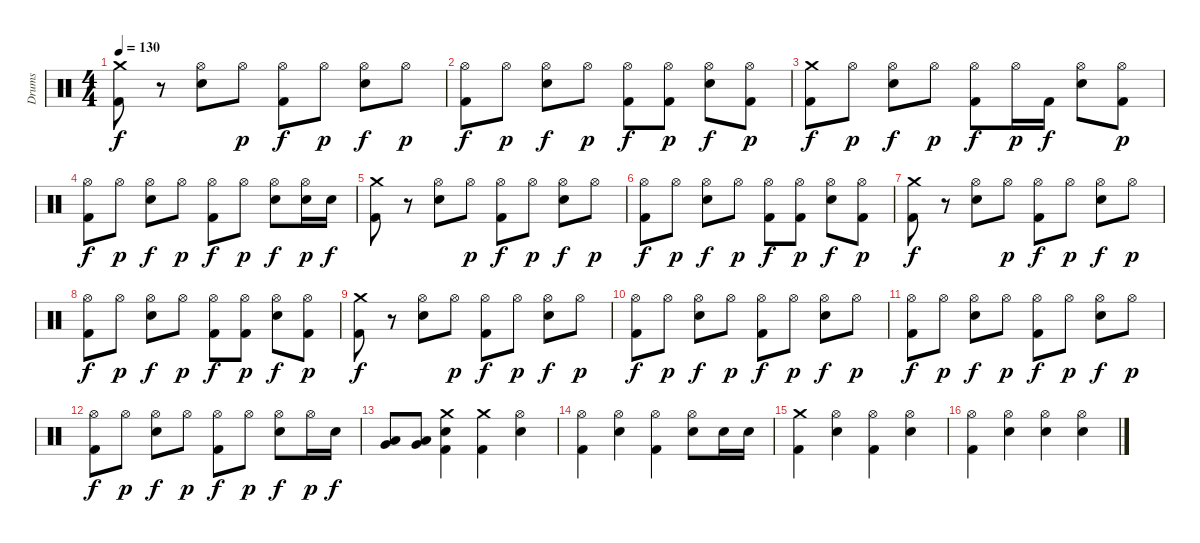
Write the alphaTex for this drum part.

\track ("Drums" "Drums") {instrument percussion}
\staff {score}
\articulation defaults
\ts (4 4)
\tempo 130
\clef neutral
\ks c
("Crash medium (hit)" "Kick (hit) 2").8{dy f} r.8 ("Hi-Hat (open)" "Snare (hit) 2").8 "Hi-Hat (open)".8{dy p} ("Hi-Hat (open)" "Kick (hit) 2").8{dy f} "Hi-Hat (open)".8{dy p} ("Hi-Hat (open)" "Snare (hit) 2").8{dy f} "Hi-Hat (open)".8{dy p} |
("Hi-Hat (open)" "Kick (hit) 2").8{dy f} "Hi-Hat (open)".8{dy p} ("Hi-Hat (open)" "Snare (hit) 2").8{dy f} "Hi-Hat (open)".8{dy p} ("Hi-Hat (open)" "Kick (hit) 2").8{dy f} ("Hi-Hat (open)" "Kick (hit) 2").8{dy p} ("Hi-Hat (open)" "Snare (hit) 2").8{dy f} ("Hi-Hat (open)" "Kick (hit) 2").8{dy p} |
("Crash medium (hit)" "Kick (hit) 2").8{dy f} "Hi-Hat (open)".8{dy p} ("Hi-Hat (open)" "Snare (hit) 2").8{dy f} "Hi-Hat (open)".8{dy p} ("Hi-Hat (open)" "Kick (hit) 2").8{dy f} "Hi-Hat (open)".16{dy p} "Kick (hit) 2".16{dy f} ("Hi-Hat (open)" "Snare (hit) 2").8 ("Hi-Hat (open)" "Kick (hit) 2").8{dy p} |
("Hi-Hat (open)" "Kick (hit) 2").8{dy f} "Hi-Hat (open)".8{dy p} ("Hi-Hat (open)" "Snare (hit) 2").8{dy f} "Hi-Hat (open)".8{dy p} ("Hi-Hat (open)" "Kick (hit) 2").8{dy f} "Hi-Hat (open)".8{dy p} ("Hi-Hat (open)" "Snare (hit) 2").8{dy f} ("Hi-Hat (open)" "Snare (hit) 2").16{dy p} "Snare (hit) 2".16{dy f} |
("Crash medium (hit)" "Kick (hit) 2").8 r.8 ("Hi-Hat (open)" "Snare (hit) 2").8 "Hi-Hat (open)".8{dy p} ("Hi-Hat (open)" "Kick (hit) 2").8{dy f} "Hi-Hat (open)".8{dy p} ("Hi-Hat (open)" "Snare (hit) 2").8{dy f} "Hi-Hat (open)".8{dy p} |
("Hi-Hat (open)" "Kick (hit) 2").8{dy f} "Hi-Hat (open)".8{dy p} ("Hi-Hat (open)" "Snare (hit) 2").8{dy f} "Hi-Hat (open)".8{dy p} ("Hi-Hat (open)" "Kick (hit) 2").8{dy f} ("Hi-Hat (open)" "Kick (hit) 2").8{dy p} ("Hi-Hat (open)" "Snare (hit) 2").8{dy f} ("Hi-Hat (open)" "Kick (hit) 2").8{dy p} |
("Crash medium (hit)" "Kick (hit) 2").8{dy f} r.8 ("Hi-Hat (open)" "Snare (hit) 2").8 "Hi-Hat (open)".8{dy p} ("Hi-Hat (open)" "Kick (hit) 2").8{dy f} "Hi-Hat (open)".8{dy p} ("Hi-Hat (open)" "Snare (hit) 2").8{dy f} "Hi-Hat (open)".8{dy p} |
("Hi-Hat (open)" "Kick (hit) 2").8{dy f} "Hi-Hat (open)".8{dy p} ("Hi-Hat (open)" "Snare (hit) 2").8{dy f} "Hi-Hat (open)".8{dy p} ("Hi-Hat (open)" "Kick (hit) 2").8{dy f} ("Hi-Hat (open)" "Kick (hit) 2").8{dy p} ("Hi-Hat (open)" "Snare (hit) 2").8{dy f} ("Hi-Hat (open)" "Kick (hit) 2").8{dy p} |
("Crash medium (hit)" "Kick (hit) 2").8{dy f} r.8 ("Hi-Hat (open)" "Snare (hit) 2").8 "Hi-Hat (open)".8{dy p} ("Hi-Hat (open)" "Kick (hit) 2").8{dy f} "Hi-Hat (open)".8{dy p} ("Hi-Hat (open)" "Snare (hit) 2").8{dy f} "Hi-Hat (open)".8{dy p} |
("Hi-Hat (open)" "Kick (hit) 2").8{dy f} "Hi-Hat (open)".8{dy p} ("Hi-Hat (open)" "Snare (hit) 2").8{dy f} "Hi-Hat (open)".8{dy p} ("Hi-Hat (open)" "Kick (hit) 2").8{dy f} "Hi-Hat (open)".8{dy p} ("Hi-Hat (open)" "Snare (hit) 2").8{dy f} "Hi-Hat (open)".8{dy p} |
("Hi-Hat (open)" "Kick (hit) 2").8{dy f} "Hi-Hat (open)".8{dy p} ("Hi-Hat (open)" "Snare (hit) 2").8{dy f} "Hi-Hat (open)".8{dy p} ("Hi-Hat (open)" "Kick (hit) 2").8{dy f} "Hi-Hat (open)".8{dy p} ("Hi-Hat (open)" "Snare (hit) 2").8{dy f} "Hi-Hat (open)".8{dy p} |
("Hi-Hat (open)" "Kick (hit) 2").8{dy f} "Hi-Hat (open)".8{dy p} ("Hi-Hat (open)" "Snare (hit) 2").8{dy f} "Hi-Hat (open)".8{dy p} ("Hi-Hat (open)" "Kick (hit) 2").8{dy f} "Hi-Hat (open)".8{dy p} ("Hi-Hat (open)" "Snare (hit) 2").8{dy f} "Hi-Hat (open)".16{dy p} "Snare (hit) 2".16{dy f} |
("Low Floor Tom (hit)" "Very Low Tom (hit)").8 ("Low Floor Tom (hit)" "Very Low Tom (hit)").8 ("Crash medium (hit)" "Snare (hit) 2" "Kick (hit) 2").4 ("Crash medium (hit)" "Kick (hit) 2").4 ("Hi-Hat (open)" "Snare (hit) 2").4 |
("Hi-Hat (open)" "Kick (hit) 2").4 ("Hi-Hat (open)" "Snare (hit) 2").4 ("Hi-Hat (open)" "Kick (hit) 2").4 ("Hi-Hat (open)" "Snare (hit) 2").8 "Snare (hit) 2".16 "Snare (hit) 2".16 |
("Crash medium (hit)" "Kick (hit) 2").4 ("Hi-Hat (open)" "Snare (hit) 2").4 ("Hi-Hat (open)" "Kick (hit) 2").4 ("Hi-Hat (open)" "Snare (hit) 2").4 |
("Hi-Hat (open)" "Kick (hit) 2").4 ("Hi-Hat (open)" "Snare (hit) 2").4 ("Hi-Hat (open)" "Snare (hit) 2").4 ("Hi-Hat (open)" "Snare (hit) 2").4
